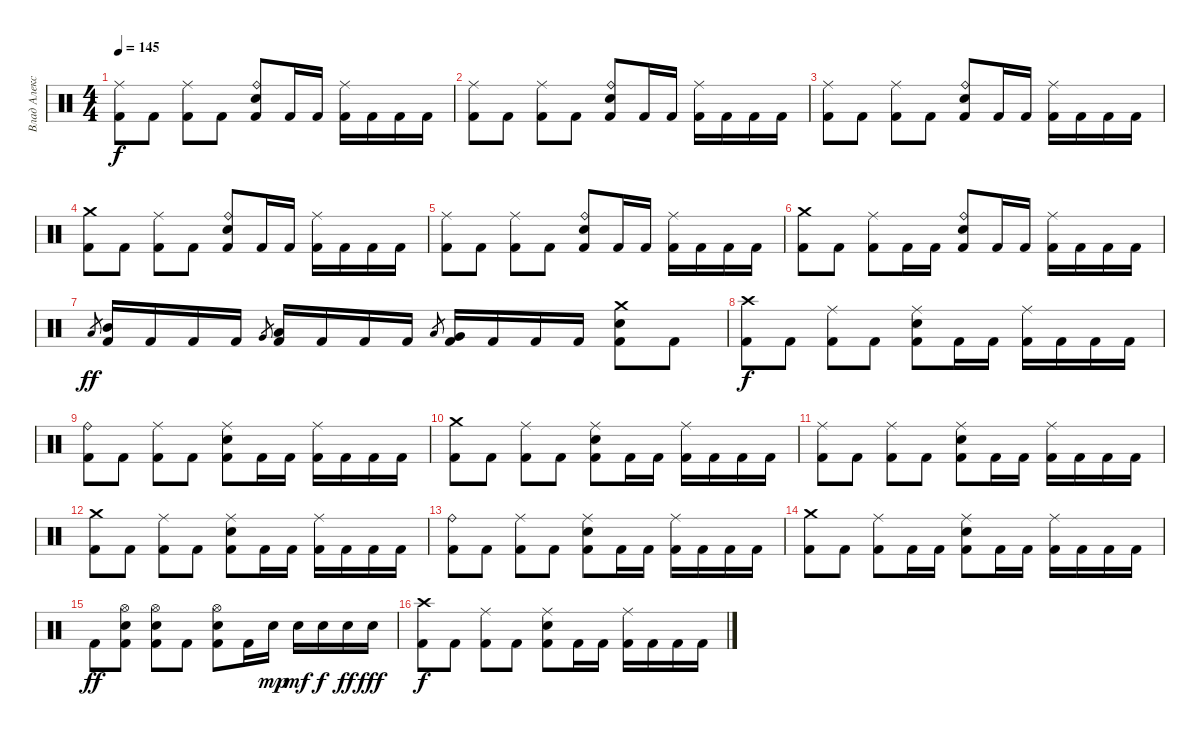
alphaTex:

\track ("Влад Алексеенко" "Влад Алекс") {instrument percussion}
\staff {score}
\articulation defaults
\ts (4 4)
\tempo 145
\clef neutral
\ks c
("Ride (middle)" "Kick (hit) 2").8{dy f} "Kick (hit) 2".8 ("Ride (middle)" "Kick (hit) 2").8 "Kick (hit) 2".8 ("Ride (bell)" "Electric Snare (hit)" "Kick (hit) 2").8 "Kick (hit) 2".16 "Kick (hit) 2".16 ("Ride (middle)" "Kick (hit) 2").16 "Kick (hit) 2".16 "Kick (hit) 2".16 "Kick (hit) 2".16 |
("Ride (middle)" "Kick (hit) 2").8 "Kick (hit) 2".8 ("Ride (middle)" "Kick (hit) 2").8 "Kick (hit) 2".8 ("Ride (bell)" "Electric Snare (hit)" "Kick (hit) 2").8 "Kick (hit) 2".16 "Kick (hit) 2".16 ("Ride (middle)" "Kick (hit) 2").16 "Kick (hit) 2".16 "Kick (hit) 2".16 "Kick (hit) 2".16 |
("Ride (middle)" "Kick (hit) 2").8 "Kick (hit) 2".8 ("Ride (middle)" "Kick (hit) 2").8 "Kick (hit) 2".8 ("Ride (bell)" "Electric Snare (hit)" "Kick (hit) 2").8 "Kick (hit) 2".16 "Kick (hit) 2".16 ("Ride (middle)" "Kick (hit) 2").16 "Kick (hit) 2".16 "Kick (hit) 2".16 "Kick (hit) 2".16 |
("Crash medium (hit)" "Kick (hit) 2").8 "Kick (hit) 2".8 ("Ride (middle)" "Kick (hit) 2").8 "Kick (hit) 2".8 ("Ride (bell)" "Electric Snare (hit)" "Kick (hit) 2").8 "Kick (hit) 2".16 "Kick (hit) 2".16 ("Ride (middle)" "Kick (hit) 2").16 "Kick (hit) 2".16 "Kick (hit) 2".16 "Kick (hit) 2".16 |
("Ride (middle)" "Kick (hit) 2").8 "Kick (hit) 2".8 ("Ride (middle)" "Kick (hit) 2").8 "Kick (hit) 2".8 ("Ride (bell)" "Electric Snare (hit)" "Kick (hit) 2").8 "Kick (hit) 2".16 "Kick (hit) 2".16 ("Ride (middle)" "Kick (hit) 2").16 "Kick (hit) 2".16 "Kick (hit) 2".16 "Kick (hit) 2".16 |
("Crash medium (hit)" "Kick (hit) 2").8 "Kick (hit) 2".8 ("Ride (middle)" "Kick (hit) 2").8 "Kick (hit) 2".16 "Kick (hit) 2".16 ("Ride (bell)" "Electric Snare (hit)" "Kick (hit) 2").8 "Kick (hit) 2".16 "Kick (hit) 2".16 ("Ride (middle)" "Kick (hit) 2").16 "Kick (hit) 2".16 "Kick (hit) 2".16 "Kick (hit) 2".16 |
"Low Tom (hit)".8{gr dy ff} ("Mid Tom (hit)" "Kick (hit) 2").16 "Kick (hit) 2".16 "Kick (hit) 2".16 "Kick (hit) 2".16 "Very Low Tom (hit)".8{gr} ("Low Tom (hit)" "Kick (hit) 2").16 "Kick (hit) 2".16 "Kick (hit) 2".16 "Kick (hit) 2".16 "Low Floor Tom (hit)".8{gr} ("Very Low Tom (hit)" "Kick (hit) 2").16 "Kick (hit) 2".16 "Kick (hit) 2".16 "Kick (hit) 2".16 ("Crash medium (hit)" "Electric Snare (hit)" "Kick (hit) 2").8 "Kick (hit) 2".8 |
("Crash high (hit)" "Kick (hit) 2").8{dy f} "Kick (hit) 2".8 ("Ride (middle)" "Kick (hit) 2").8 "Kick (hit) 2".8 ("Ride (middle)" "Electric Snare (hit)" "Kick (hit) 2").8 "Kick (hit) 2".16 "Kick (hit) 2".16 ("Ride (middle)" "Kick (hit) 2").16 "Kick (hit) 2".16 "Kick (hit) 2".16 "Kick (hit) 2".16 |
("Ride (bell)" "Kick (hit) 2").8 "Kick (hit) 2".8 ("Ride (middle)" "Kick (hit) 2").8 "Kick (hit) 2".8 ("Ride (middle)" "Electric Snare (hit)" "Kick (hit) 2").8 "Kick (hit) 2".16 "Kick (hit) 2".16 ("Ride (middle)" "Kick (hit) 2").16 "Kick (hit) 2".16 "Kick (hit) 2".16 "Kick (hit) 2".16 |
("Crash medium (hit)" "Kick (hit) 2").8 "Kick (hit) 2".8 ("Ride (middle)" "Kick (hit) 2").8 "Kick (hit) 2".8 ("Ride (middle)" "Electric Snare (hit)" "Kick (hit) 2").8 "Kick (hit) 2".16 "Kick (hit) 2".16 ("Ride (middle)" "Kick (hit) 2").16 "Kick (hit) 2".16 "Kick (hit) 2".16 "Kick (hit) 2".16 |
("Ride (middle)" "Kick (hit) 2").8 "Kick (hit) 2".8 ("Ride (middle)" "Kick (hit) 2").8 "Kick (hit) 2".8 ("Ride (middle)" "Electric Snare (hit)" "Kick (hit) 2").8 "Kick (hit) 2".16 "Kick (hit) 2".16 ("Ride (middle)" "Kick (hit) 2").16 "Kick (hit) 2".16 "Kick (hit) 2".16 "Kick (hit) 2".16 |
("Crash medium (hit)" "Kick (hit) 2").8 "Kick (hit) 2".8 ("Ride (middle)" "Kick (hit) 2").8 "Kick (hit) 2".8 ("Ride (middle)" "Electric Snare (hit)" "Kick (hit) 2").8 "Kick (hit) 2".16 "Kick (hit) 2".16 ("Ride (middle)" "Kick (hit) 2").16 "Kick (hit) 2".16 "Kick (hit) 2".16 "Kick (hit) 2".16 |
("Ride (bell)" "Kick (hit) 2").8 "Kick (hit) 2".8 ("Ride (middle)" "Kick (hit) 2").8 "Kick (hit) 2".8 ("Ride (middle)" "Electric Snare (hit)" "Kick (hit) 2").8 "Kick (hit) 2".16 "Kick (hit) 2".16 ("Ride (middle)" "Kick (hit) 2").16 "Kick (hit) 2".16 "Kick (hit) 2".16 "Kick (hit) 2".16 |
("Crash medium (hit)" "Kick (hit) 2").8 "Kick (hit) 2".8 ("Ride (middle)" "Kick (hit) 2").8 "Kick (hit) 2".16 "Kick (hit) 2".16 ("Ride (middle)" "Electric Snare (hit)" "Kick (hit) 2").8 "Kick (hit) 2".16 "Kick (hit) 2".16 ("Ride (middle)" "Kick (hit) 2").16 "Kick (hit) 2".16 "Kick (hit) 2".16 "Kick (hit) 2".16 |
"Kick (hit) 2".8{dy ff} ("Hi-Hat (open)" "Electric Snare (hit)" "Kick (hit) 2").8 ("Hi-Hat (open)" "Electric Snare (hit)" "Kick (hit) 2").8 "Kick (hit) 2".8 ("Hi-Hat (open)" "Electric Snare (hit)" "Kick (hit) 2").8 "Kick (hit) 2".16 "Electric Snare (hit)".16{dy mp} "Electric Snare (hit)".16{dy mf} "Electric Snare (hit)".16{dy f} "Electric Snare (hit)".16{dy ff} "Electric Snare (hit)".16{dy fff} |
("Crash high (hit)" "Kick (hit) 2").8{dy f} "Kick (hit) 2".8 ("Ride (middle)" "Kick (hit) 2").8 "Kick (hit) 2".8 ("Ride (middle)" "Electric Snare (hit)" "Kick (hit) 2").8 "Kick (hit) 2".16 "Kick (hit) 2".16 ("Ride (middle)" "Kick (hit) 2").16 "Kick (hit) 2".16 "Kick (hit) 2".16 "Kick (hit) 2".16
